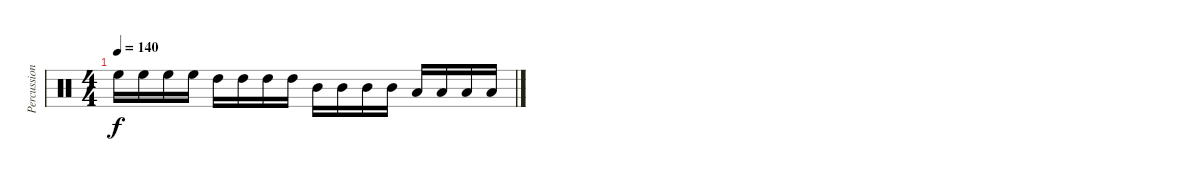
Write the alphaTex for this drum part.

\track ("Percussions" "Percussion") {instrument percussion}
\staff {score}
\articulation defaults
\ts (4 4)
\tempo 140
\clef neutral
\ks c "High Floor Tom (hit)".16{dy f} "High Floor Tom (hit)".16 "High Floor Tom (hit)".16 "High Floor Tom (hit)".16 "High Tom (hit)".16 "High Tom (hit)".16 "High Tom (hit)".16 "High Tom (hit)".16 "Mid Tom (hit)".16 "Mid Tom (hit)".16 "Mid Tom (hit)".16 "Mid Tom (hit)".16 "Low Tom (hit)".16 "Low Tom (hit)".16 "Low Tom (hit)".16 "Low Tom (hit)".16
